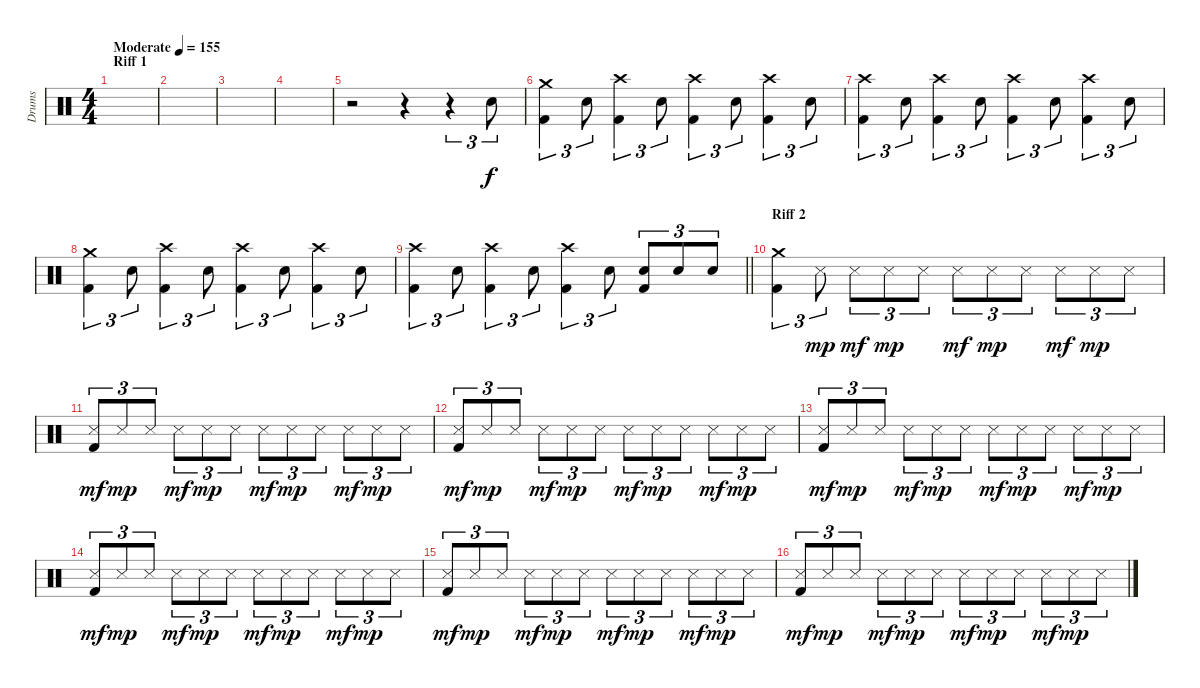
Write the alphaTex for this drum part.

\track ("Drums" "Drums") {instrument percussion}
\staff {score}
\articulation defaults
\ts (4 4)
\section ("" "Riff 1")
\tempo (155 "Moderate")
\clef neutral
\ks c
|
|
|
|
r.2 r.4 r.4{tu (3 2)} "Electric Snare (hit)".8{tu (3 2)} |
("Crash medium (hit)" "Kick (hit) 2").4{tu (3 2)} "Electric Snare (hit)".8{tu (3 2)} ("Kick (hit) 2" "Crash high (hit)").4{tu (3 2)} "Electric Snare (hit)".8{tu (3 2)} ("Kick (hit) 2" "Crash high (hit)").4{tu (3 2)} "Electric Snare (hit)".8{tu (3 2)} ("Kick (hit) 2" "Crash high (hit)").4{tu (3 2)} "Electric Snare (hit)".8{tu (3 2)} |
("Kick (hit) 2" "Crash high (hit)").4{tu (3 2)} "Electric Snare (hit)".8{tu (3 2)} ("Kick (hit) 2" "Crash high (hit)").4{tu (3 2)} "Electric Snare (hit)".8{tu (3 2)} ("Kick (hit) 2" "Crash high (hit)").4{tu (3 2)} "Electric Snare (hit)".8{tu (3 2)} ("Kick (hit) 2" "Crash high (hit)").4{tu (3 2)} "Electric Snare (hit)".8{tu (3 2)} |
("Kick (hit) 2" "Crash medium (hit)").4{tu (3 2)} "Electric Snare (hit)".8{tu (3 2)} ("Kick (hit) 2" "Crash high (hit)").4{tu (3 2)} "Electric Snare (hit)".8{tu (3 2)} ("Kick (hit) 2" "Crash high (hit)").4{tu (3 2)} "Electric Snare (hit)".8{tu (3 2)} ("Kick (hit) 2" "Crash high (hit)").4{tu (3 2)} "Electric Snare (hit)".8{tu (3 2)} |
\barLineRight lightlight
("Kick (hit) 2" "Crash high (hit)").4{tu (3 2)} "Electric Snare (hit)".8{tu (3 2)} ("Kick (hit) 2" "Crash high (hit)").4{tu (3 2)} "Electric Snare (hit)".8{tu (3 2)} ("Kick (hit) 2" "Crash high (hit)").4{tu (3 2)} "Electric Snare (hit)".8{tu (3 2)} ("Electric Snare (hit)" "Kick (hit) 2").8{tu (3 2)} "Electric Snare (hit)".8{tu (3 2)} "Electric Snare (hit)".8{tu (3 2)} |
\section ("" "Riff 2")
("Crash medium (hit)" "Kick (hit) 2").4{tu (3 2)} "Snare (side stick) 3".8{tu (3 2) dy mp} "Snare (side stick) 3".8{tu (3 2) dy mf} "Snare (side stick) 3".8{tu (3 2) dy mp} "Snare (side stick) 3".8{tu (3 2)} "Snare (side stick) 3".8{tu (3 2) dy mf} "Snare (side stick) 3".8{tu (3 2) dy mp} "Snare (side stick) 3".8{tu (3 2)} "Snare (side stick) 3".8{tu (3 2) dy mf} "Snare (side stick) 3".8{tu (3 2) dy mp} "Snare (side stick) 3".8{tu (3 2)} |
("Snare (side stick) 3" "Kick (hit) 2").8{tu (3 2) dy mf} "Snare (side stick) 3".8{tu (3 2) dy mp} "Snare (side stick) 3".8{tu (3 2)} "Snare (side stick) 3".8{tu (3 2) dy mf} "Snare (side stick) 3".8{tu (3 2) dy mp} "Snare (side stick) 3".8{tu (3 2)} "Snare (side stick) 3".8{tu (3 2) dy mf} "Snare (side stick) 3".8{tu (3 2) dy mp} "Snare (side stick) 3".8{tu (3 2)} "Snare (side stick) 3".8{tu (3 2) dy mf} "Snare (side stick) 3".8{tu (3 2) dy mp} "Snare (side stick) 3".8{tu (3 2)} |
("Snare (side stick) 3" "Kick (hit) 2").8{tu (3 2) dy mf} "Snare (side stick) 3".8{tu (3 2) dy mp} "Snare (side stick) 3".8{tu (3 2)} "Snare (side stick) 3".8{tu (3 2) dy mf} "Snare (side stick) 3".8{tu (3 2) dy mp} "Snare (side stick) 3".8{tu (3 2)} "Snare (side stick) 3".8{tu (3 2) dy mf} "Snare (side stick) 3".8{tu (3 2) dy mp} "Snare (side stick) 3".8{tu (3 2)} "Snare (side stick) 3".8{tu (3 2) dy mf} "Snare (side stick) 3".8{tu (3 2) dy mp} "Snare (side stick) 3".8{tu (3 2)} |
("Snare (side stick) 3" "Kick (hit) 2").8{tu (3 2) dy mf} "Snare (side stick) 3".8{tu (3 2) dy mp} "Snare (side stick) 3".8{tu (3 2)} "Snare (side stick) 3".8{tu (3 2) dy mf} "Snare (side stick) 3".8{tu (3 2) dy mp} "Snare (side stick) 3".8{tu (3 2)} "Snare (side stick) 3".8{tu (3 2) dy mf} "Snare (side stick) 3".8{tu (3 2) dy mp} "Snare (side stick) 3".8{tu (3 2)} "Snare (side stick) 3".8{tu (3 2) dy mf} "Snare (side stick) 3".8{tu (3 2) dy mp} "Snare (side stick) 3".8{tu (3 2)} |
("Snare (side stick) 3" "Kick (hit) 2").8{tu (3 2) dy mf} "Snare (side stick) 3".8{tu (3 2) dy mp} "Snare (side stick) 3".8{tu (3 2)} "Snare (side stick) 3".8{tu (3 2) dy mf} "Snare (side stick) 3".8{tu (3 2) dy mp} "Snare (side stick) 3".8{tu (3 2)} "Snare (side stick) 3".8{tu (3 2) dy mf} "Snare (side stick) 3".8{tu (3 2) dy mp} "Snare (side stick) 3".8{tu (3 2)} "Snare (side stick) 3".8{tu (3 2) dy mf} "Snare (side stick) 3".8{tu (3 2) dy mp} "Snare (side stick) 3".8{tu (3 2)} |
("Snare (side stick) 3" "Kick (hit) 2").8{tu (3 2) dy mf} "Snare (side stick) 3".8{tu (3 2) dy mp} "Snare (side stick) 3".8{tu (3 2)} "Snare (side stick) 3".8{tu (3 2) dy mf} "Snare (side stick) 3".8{tu (3 2) dy mp} "Snare (side stick) 3".8{tu (3 2)} "Snare (side stick) 3".8{tu (3 2) dy mf} "Snare (side stick) 3".8{tu (3 2) dy mp} "Snare (side stick) 3".8{tu (3 2)} "Snare (side stick) 3".8{tu (3 2) dy mf} "Snare (side stick) 3".8{tu (3 2) dy mp} "Snare (side stick) 3".8{tu (3 2)} |
("Snare (side stick) 3" "Kick (hit) 2").8{tu (3 2) dy mf} "Snare (side stick) 3".8{tu (3 2) dy mp} "Snare (side stick) 3".8{tu (3 2)} "Snare (side stick) 3".8{tu (3 2) dy mf} "Snare (side stick) 3".8{tu (3 2) dy mp} "Snare (side stick) 3".8{tu (3 2)} "Snare (side stick) 3".8{tu (3 2) dy mf} "Snare (side stick) 3".8{tu (3 2) dy mp} "Snare (side stick) 3".8{tu (3 2)} "Snare (side stick) 3".8{tu (3 2) dy mf} "Snare (side stick) 3".8{tu (3 2) dy mp} "Snare (side stick) 3".8{tu (3 2)}
